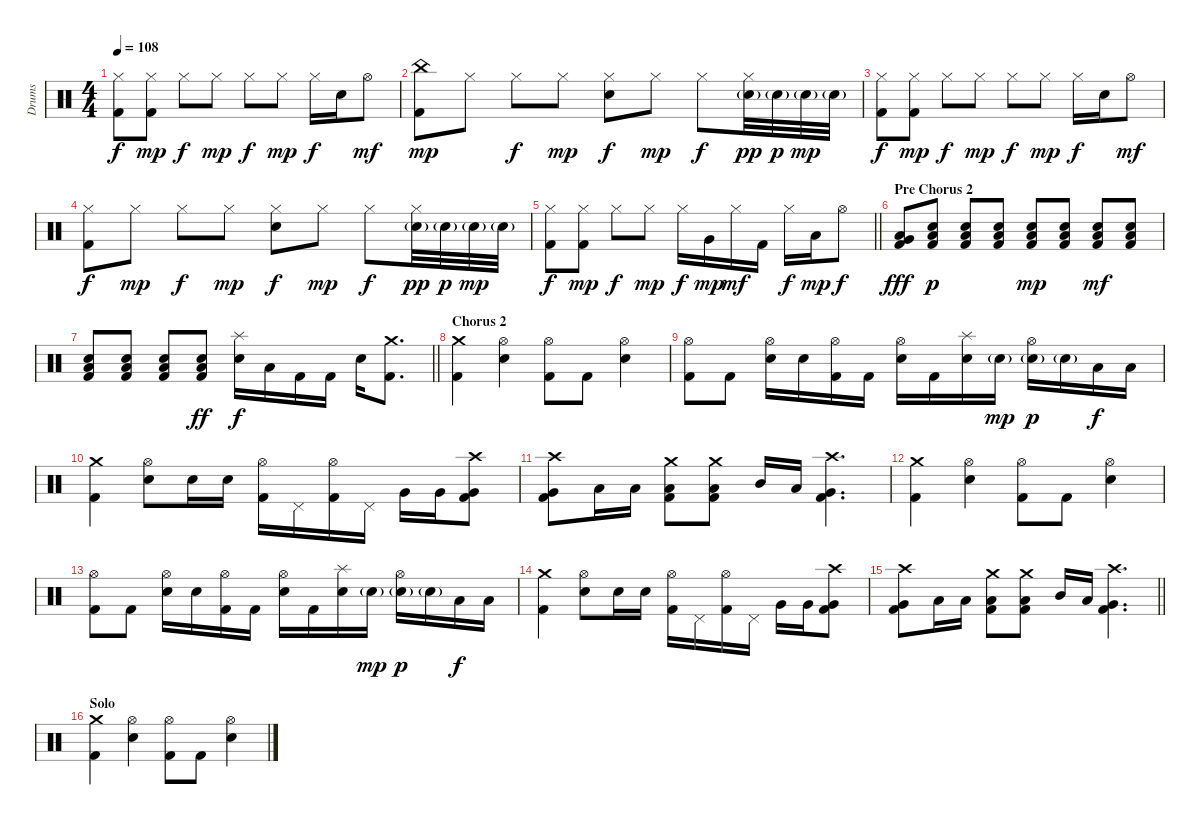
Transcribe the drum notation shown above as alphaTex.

\track ("Drums" "Drums") {instrument percussion}
\staff {score}
\articulation defaults
\ts (4 4)
\tempo 108
\clef neutral
\ks c
("Hi-Hat (closed)" "Kick (hit) 2").8{dy f} ("Hi-Hat (closed)" "Kick (hit) 2").8{dy mp} "Hi-Hat (closed)".8{dy f} "Hi-Hat (closed)".8{dy mp} "Hi-Hat (closed)".8{dy f} "Hi-Hat (closed)".8{dy mp} "Hi-Hat (closed)".16{dy f} "Electric Snare (hit)".16 "Hi-Hat (open)".8{dy mf} |
("China (hit)" "Kick (hit) 2").8{dy mp} "Hi-Hat (closed)".8 "Hi-Hat (closed)".8{dy f} "Hi-Hat (closed)".8{dy mp} ("Hi-Hat (closed)" "Electric Snare (hit)").8{dy f} "Hi-Hat (closed)".8{dy mp} "Hi-Hat (closed)".8{dy f} ("Hi-Hat (closed)" "Electric Snare (hit)"{g}).32{dy pp} "Electric Snare (hit)"{g}.32{dy p} "Electric Snare (hit)"{g}.32{dy mp} "Electric Snare (hit)"{g}.32 |
("Hi-Hat (closed)" "Kick (hit) 2").8{dy f} ("Hi-Hat (closed)" "Kick (hit) 2").8{dy mp} "Hi-Hat (closed)".8{dy f} "Hi-Hat (closed)".8{dy mp} "Hi-Hat (closed)".8{dy f} "Hi-Hat (closed)".8{dy mp} "Hi-Hat (closed)".16{dy f} "Electric Snare (hit)".16 "Hi-Hat (open)".8{dy mf} |
("Hi-Hat (closed)" "Kick (hit) 2").8{dy f} "Hi-Hat (closed)".8{dy mp} "Hi-Hat (closed)".8{dy f} "Hi-Hat (closed)".8{dy mp} ("Hi-Hat (closed)" "Electric Snare (hit)").8{dy f} "Hi-Hat (closed)".8{dy mp} "Hi-Hat (closed)".8{dy f} ("Hi-Hat (closed)" "Electric Snare (hit)"{g}).32{dy pp} "Electric Snare (hit)"{g}.32{dy p} "Electric Snare (hit)"{g}.32{dy mp} "Electric Snare (hit)"{g}.32 |
\barLineRight lightlight
("Hi-Hat (closed)" "Kick (hit) 2").8{dy f} ("Hi-Hat (closed)" "Kick (hit) 2").8{dy mp} "Hi-Hat (closed)".8{dy f} "Hi-Hat (closed)".8{dy mp} "Hi-Hat (closed)".16{dy f} "Very Low Tom (hit)".16{dy mp} "Hi-Hat (closed)".16{dy mf} "Kick (hit) 2".16 "Hi-Hat (closed)".16{dy f} "Low Tom (hit)".16{dy mp} "Hi-Hat (open)".8{dy f} |
\section ("" "Pre Chorus 2")
("Very Low Tom (hit)" "Low Floor Tom (hit)" "Kick (hit) 2").8{dy fff} ("Low Floor Tom (hit)" "Electric Snare (hit)" "Kick (hit) 2").8{dy p} ("Low Floor Tom (hit)" "Electric Snare (hit)" "Kick (hit) 2").8 ("Low Floor Tom (hit)" "Electric Snare (hit)" "Kick (hit) 2").8 ("Low Floor Tom (hit)" "Electric Snare (hit)" "Kick (hit) 2").8{dy mp} ("Low Floor Tom (hit)" "Electric Snare (hit)" "Kick (hit) 2").8 ("Low Floor Tom (hit)" "Electric Snare (hit)" "Kick (hit) 2").8{dy mf} ("Low Floor Tom (hit)" "Electric Snare (hit)" "Kick (hit) 2").8 |
\barLineRight lightlight
("Low Floor Tom (hit)" "Electric Snare (hit)" "Kick (hit) 2").8 ("Low Floor Tom (hit)" "Electric Snare (hit)" "Kick (hit) 2").8 ("Low Floor Tom (hit)" "Electric Snare (hit)" "Kick (hit) 2").8 ("Low Floor Tom (hit)" "Electric Snare (hit)" "Kick (hit) 2").8{dy ff} ("Splash (hit)" "Electric Snare (hit)").16{dy f} "Low Tom (hit)".16 "Kick (hit) 2".16 "Kick (hit) 2".16 "Electric Snare (hit)".16 ("Crash medium (hit)" "Kick (hit) 2").8{d} |
\section ("" "Chorus 2")
("Crash medium (hit)" "Kick (hit) 2").4 ("Hi-Hat (open)" "Electric Snare (hit)").4 ("Hi-Hat (open)" "Kick (hit) 2").8 "Kick (hit) 2".8 ("Hi-Hat (open)" "Electric Snare (hit)").4 |
("Hi-Hat (open)" "Kick (hit) 2").8 "Kick (hit) 2".8 ("Hi-Hat (open)" "Electric Snare (hit)").16 "Electric Snare (hit)".16 ("Hi-Hat (open)" "Kick (hit) 2").16 "Kick (hit) 2".16 ("Hi-Hat (open)" "Electric Snare (hit)").16 "Kick (hit) 2".16 ("Splash (hit)" "Electric Snare (hit)").16 "Electric Snare (hit)"{g}.16{dy mp} ("Hi-Hat (open)" "Electric Snare (hit)"{g}).16{dy p} "Electric Snare (hit)"{g}.16 "Low Tom (hit)".16{dy f} "Low Tom (hit)".16 |
("Crash medium (hit)" "Kick (hit) 2").4 ("Hi-Hat (open)" "Electric Snare (hit)").8 "Electric Snare (hit)".16 "Electric Snare (hit)".16 ("Hi-Hat (open)" "Kick (hit) 2").16 "Pedal Hi-Hat (hit)".16 ("Hi-Hat (open)" "Kick (hit) 2").16 "Pedal Hi-Hat (hit)".16 "Very Low Tom (hit)".16 "Very Low Tom (hit)".16 ("Crash high (hit)" "Very Low Tom (hit)" "Kick (hit) 2").8 |
("Crash high (hit)" "Very Low Tom (hit)" "Kick (hit) 2").8 "Low Tom (hit)".16 "Low Tom (hit)".16 ("Crash medium (hit)" "Low Tom (hit)" "Kick (hit) 2").8 ("Crash medium (hit)" "Low Tom (hit)" "Kick (hit) 2").8 "Mid Tom (hit)".16 "Low Tom (hit)".16 ("Crash high (hit)" "Very Low Tom (hit)" "Kick (hit) 2").4{d} |
("Crash medium (hit)" "Kick (hit) 2").4 ("Hi-Hat (open)" "Electric Snare (hit)").4 ("Hi-Hat (open)" "Kick (hit) 2").8 "Kick (hit) 2".8 ("Hi-Hat (open)" "Electric Snare (hit)").4 |
("Hi-Hat (open)" "Kick (hit) 2").8 "Kick (hit) 2".8 ("Hi-Hat (open)" "Electric Snare (hit)").16 "Electric Snare (hit)".16 ("Hi-Hat (open)" "Kick (hit) 2").16 "Kick (hit) 2".16 ("Hi-Hat (open)" "Electric Snare (hit)").16 "Kick (hit) 2".16 ("Splash (hit)" "Electric Snare (hit)").16 "Electric Snare (hit)"{g}.16{dy mp} ("Hi-Hat (open)" "Electric Snare (hit)"{g}).16{dy p} "Electric Snare (hit)"{g}.16 "Low Tom (hit)".16{dy f} "Low Tom (hit)".16 |
("Crash medium (hit)" "Kick (hit) 2").4 ("Hi-Hat (open)" "Electric Snare (hit)").8 "Electric Snare (hit)".16 "Electric Snare (hit)".16 ("Hi-Hat (open)" "Kick (hit) 2").16 "Pedal Hi-Hat (hit)".16 ("Hi-Hat (open)" "Kick (hit) 2").16 "Pedal Hi-Hat (hit)".16 "Very Low Tom (hit)".16 "Very Low Tom (hit)".16 ("Crash high (hit)" "Very Low Tom (hit)" "Kick (hit) 2").8 |
\barLineRight lightlight
("Crash high (hit)" "Very Low Tom (hit)" "Kick (hit) 2").8 "Low Tom (hit)".16 "Low Tom (hit)".16 ("Crash medium (hit)" "Low Tom (hit)" "Kick (hit) 2").8 ("Crash medium (hit)" "Low Tom (hit)" "Kick (hit) 2").8 "Mid Tom (hit)".16 "Low Tom (hit)".16 ("Crash high (hit)" "Very Low Tom (hit)" "Kick (hit) 2").4{d} |
\section ("" "Solo")
("Crash medium (hit)" "Kick (hit) 2").4 ("Hi-Hat (open)" "Electric Snare (hit)").4 ("Hi-Hat (open)" "Kick (hit) 2").8 "Kick (hit) 2".8 ("Hi-Hat (open)" "Electric Snare (hit)").4
